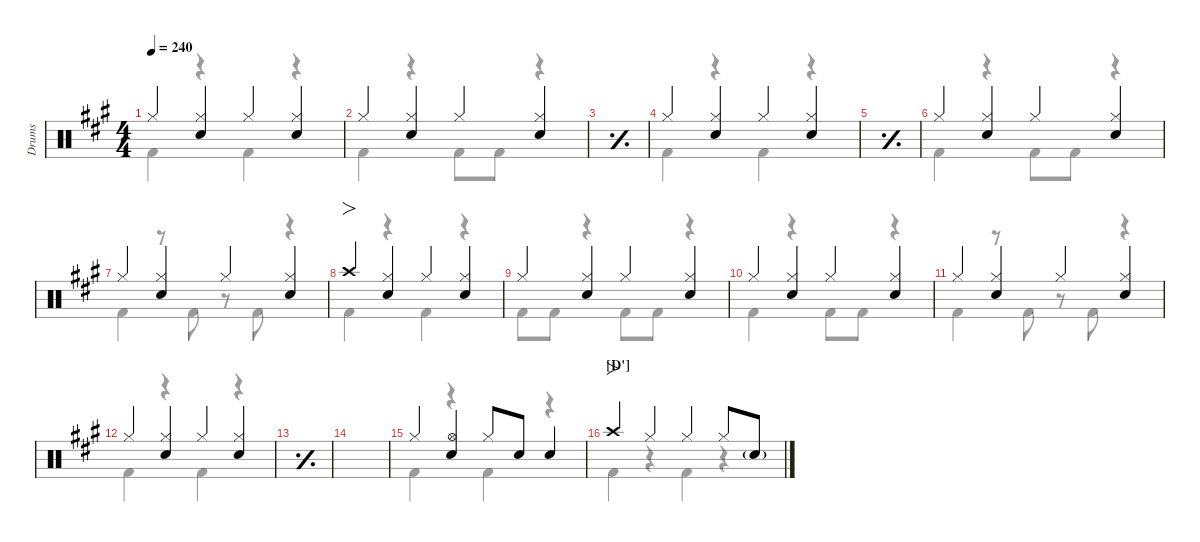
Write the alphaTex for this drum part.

\defaultSystemsLayout 4
\hideDynamics
\bracketExtendMode nobrackets
\otherSystemsTrackNameOrientation horizontal
\track ("Drums" "Drums") {defaultSystemsLayout 4 instrument percussion}
\staff {score}
\articulation defaults
\voice
\ts (4 4)
\tempo 240
\clef neutral
\scale
0.977842
\ks a "Hi-Hat (closed)"{acc forcenatural}.4{dy f beam Up}
("Hi-Hat (closed)"{acc forcenatural} "Snare (hit) 2"{acc forcenatural}).4{beam Up} "Hi-Hat (closed)"{acc forcenatural}.4{beam Up} ("Hi-Hat (closed)"{acc forcenatural} "Snare (hit) 2"{acc forcenatural}).4{beam Up} |
\scale
0.977842 "Hi-Hat (closed)"{acc forcenatural}.4{beam Up} ("Hi-Hat (closed)"{acc forcenatural} "Snare (hit) 2"{acc forcenatural}).4{beam Up} "Hi-Hat (closed)"{acc forcenatural}.4{beam Up} ("Hi-Hat (closed)"{acc forcenatural} "Snare (hit) 2"{acc forcenatural}).4{beam Up} |
\simile simple
\scale
0.977842 |
\simile none
\scale
1.06647 "Hi-Hat (closed)"{acc forcenatural}.4{beam Up} ("Hi-Hat (closed)"{acc forcenatural} "Snare (hit) 2"{acc forcenatural}).4{beam Up} "Hi-Hat (closed)"{acc forcenatural}.4{beam Up} ("Hi-Hat (closed)"{acc forcenatural} "Snare (hit) 2"{acc forcenatural}).4{beam Up} |
\simile simple
\scale
0.977842 |
\simile none
\scale
0.977842 "Hi-Hat (closed)"{acc forcenatural}.4{beam Up} ("Hi-Hat (closed)"{acc forcenatural} "Snare (hit) 2"{acc forcenatural}).4{beam Up} "Hi-Hat (closed)"{acc forcenatural}.4{beam Up} ("Hi-Hat (closed)"{acc forcenatural} "Snare (hit) 2"{acc forcenatural}).4{beam Up} |
\scale
0.977842 "Hi-Hat (closed)"{acc forcenatural}.4{beam Up} ("Hi-Hat (closed)"{acc forcenatural} "Snare (hit) 2"{acc forcenatural}).4{beam Up} "Hi-Hat (closed)"{acc forcenatural}.4{beam Up} ("Hi-Hat (closed)"{acc forcenatural} "Snare (hit) 2"{acc forcenatural}).4{beam Up} |
\scale
1.07042 "Crash high (hit)"{acc forcenatural}.4{fo beam Up} ("Hi-Hat (closed)"{acc forcenatural} "Snare (hit) 2"{acc forcenatural}).4{beam Up} "Hi-Hat (closed)"{acc forcenatural}.4{beam Up} ("Hi-Hat (closed)"{acc forcenatural} "Snare (hit) 2"{acc forcenatural}).4{beam Up} |
\scale
0.976526 "Hi-Hat (closed)"{acc forcenatural}.4{beam Up} ("Hi-Hat (closed)"{acc forcenatural} "Snare (hit) 2"{acc forcenatural}).4{beam Up} "Hi-Hat (closed)"{acc forcenatural}.4{beam Up} ("Hi-Hat (closed)"{acc forcenatural} "Snare (hit) 2"{acc forcenatural}).4{beam Up} |
\scale
0.976526 "Hi-Hat (closed)"{acc forcenatural}.4{beam Up} ("Hi-Hat (closed)"{acc forcenatural} "Snare (hit) 2"{acc forcenatural}).4{beam Up} "Hi-Hat (closed)"{acc forcenatural}.4{beam Up} ("Hi-Hat (closed)"{acc forcenatural} "Snare (hit) 2"{acc forcenatural}).4{beam Up} |
\scale
0.976526 "Hi-Hat (closed)"{acc forcenatural}.4{beam Up} ("Hi-Hat (closed)"{acc forcenatural} "Snare (hit) 2"{acc forcenatural}).4{beam Up} "Hi-Hat (closed)"{acc forcenatural}.4{beam Up} ("Hi-Hat (closed)"{acc forcenatural} "Snare (hit) 2"{acc forcenatural}).4{beam Up} |
\scale
1.066 "Hi-Hat (closed)"{acc forcenatural}.4{beam Up} ("Hi-Hat (closed)"{acc forcenatural} "Snare (hit) 2"{acc forcenatural}).4{beam Up} "Hi-Hat (closed)"{acc forcenatural}.4{beam Up} ("Hi-Hat (closed)"{acc forcenatural} "Snare (hit) 2"{acc forcenatural}).4{beam Up} |
\simile simple
\scale
0.972105 |
\scale
0.972105 |
\simile none
\scale
0.98979 "Hi-Hat (closed)"{acc forcenatural}.4{beam Up} ("Hi-Hat (open)"{acc forcenatural} "Snare (hit) 2"{acc forcenatural}).4{beam Up} "Hi-Hat (closed)"{acc forcenatural}.8{beam Up} "Snare (hit) 2"{acc forcenatural}.8{dy mf beam Up} "Snare (hit) 2"{acc forcenatural}.4{dy f beam Up} |
\section ("D'" "")
\scale
1.07042 "Crash high (hit)"{acc forcenatural}.4{fo beam Up} "Hi-Hat (closed)"{acc forcenatural}.4{beam Up} "Hi-Hat (closed)"{acc forcenatural}.4{beam Up} "Hi-Hat (closed)"{acc forcenatural}.8{beam Up} "Snare (hit) 2"{g acc forcenatural}.8{dy mf beam Up}
\voice
\clef neutral
\ottava regular
\simile none
\scale
0.977842
\ks a "Kick (hit) 2"{acc forcenatural}.4{dy f beam Down}
r.4{beam Down} "Kick (hit) 2"{acc forcenatural}.4{beam Down} r.4{beam Down} |
\scale
0.977842 "Kick (hit) 2"{acc forcenatural}.4{beam Down} r.4{beam Down} "Kick (hit) 2"{acc forcenatural}.8{beam Down} "Kick (hit) 2"{acc forcenatural}.8{beam Down} r.4{beam Down} |
\simile simple
\scale
0.977842 |
\simile none
\scale
1.06647 "Kick (hit) 2"{acc forcenatural}.4{beam Down} r.4{beam Down} "Kick (hit) 2"{acc forcenatural}.4{beam Down} r.4{beam Down} |
\simile simple
\scale
0.977842 |
\simile none
\scale
0.977842 "Kick (hit) 2"{acc forcenatural}.4{beam Down} r.4{beam Down} "Kick (hit) 2"{acc forcenatural}.8{beam Down} "Kick (hit) 2"{acc forcenatural}.8{beam Down} r.4{beam Down} |
\scale
0.977842 "Kick (hit) 2"{acc forcenatural}.4{beam Down} r.8{beam Down} "Kick (hit) 2"{acc forcenatural}.8{beam Down} r.8{beam Down} "Kick (hit) 2"{acc forcenatural}.8{beam Down} r.4{beam Down} |
\scale
1.07042 "Kick (hit) 2"{acc forcenatural}.4{beam Down} r.4{beam Down} "Kick (hit) 2"{acc forcenatural}.4{beam Down} r.4{beam Down} |
\scale
0.976526 "Kick (hit) 2"{acc forcenatural}.8{beam Down} "Kick (hit) 2"{acc forcenatural}.8{beam Down} r.4{beam Down} "Kick (hit) 2"{acc forcenatural}.8{beam Down} "Kick (hit) 2"{acc forcenatural}.8{beam Down} r.4{beam Down} |
\scale
0.976526 "Kick (hit) 2"{acc forcenatural}.4{beam Down} r.4{beam Down} "Kick (hit) 2"{acc forcenatural}.8{beam Down} "Kick (hit) 2"{acc forcenatural}.8{beam Down} r.4{beam Down} |
\scale
0.976526 "Kick (hit) 2"{acc forcenatural}.4{beam Down} r.8{beam Down} "Kick (hit) 2"{acc forcenatural}.8{beam Down} r.8{beam Down} "Kick (hit) 2"{acc forcenatural}.8{beam Down} r.4{beam Down} |
\scale
1.066 "Kick (hit) 2"{acc forcenatural}.4{beam Down} r.4{beam Down} "Kick (hit) 2"{acc forcenatural}.4{beam Down} r.4{beam Down} |
\simile simple
\scale
0.972105 |
\scale
0.972105 |
\simile none
\scale
0.98979 "Kick (hit) 2"{acc forcenatural}.4{beam Down} r.4{beam Down} "Kick (hit) 2"{acc forcenatural}.4{beam Down} r.4{beam Down} |
\scale
1.07042 "Kick (hit) 2"{acc forcenatural}.4{beam Down} r.4{beam Down} "Kick (hit) 2"{acc forcenatural}.4{beam Down} r.4{beam Down}
